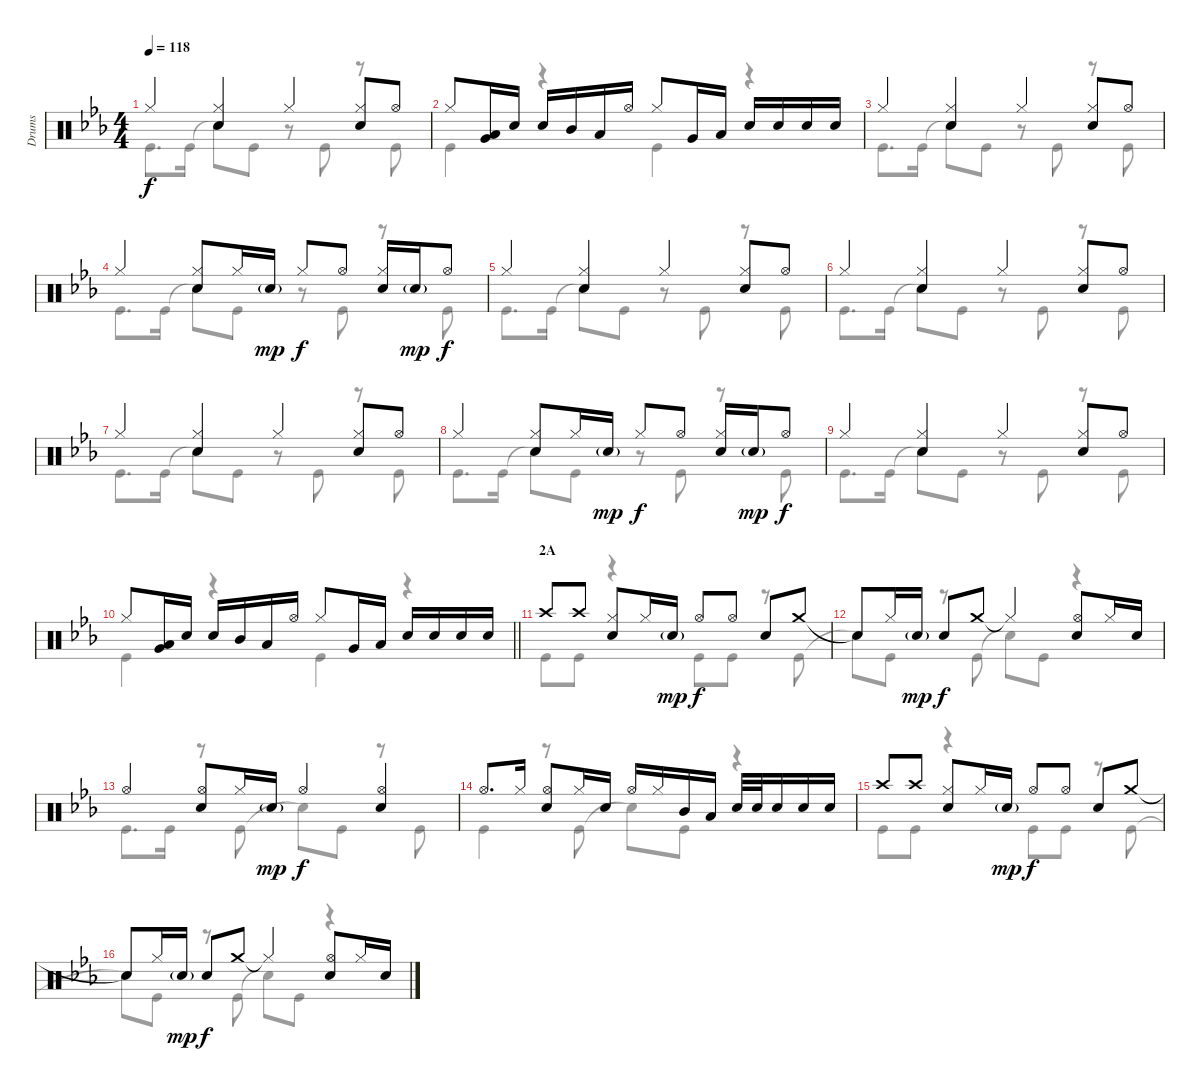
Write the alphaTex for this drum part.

\track ("Drums" "Drums") {instrument percussion}
\staff {score}
\articulation defaults
\voice
\ts (4 4)
\tempo 118
\clef neutral
\ks eb "Hi-Hat (closed)".4{dy f}
("Hi-Hat (closed)" "Snare (hit) 2").4 "Hi-Hat (closed)".4 ("Hi-Hat (closed)" "Snare (hit) 2").8 "Hi-Hat (open)".8 |
"Hi-Hat (closed)".8 ("Low Tom (hit)" "Very Low Tom (hit)").16 "Snare (hit) 2".16 "Snare (hit) 2".16 "Mid Tom (hit)".16 "Low Tom (hit)".16 "Hi-Hat (open)".16 "Hi-Hat (closed)".8 "Very Low Tom (hit)".16 "Low Tom (hit)".16 "Snare (hit) 2".16 "Snare (hit) 2".16 "Snare (hit) 2".16 "Snare (hit) 2".16 |
"Hi-Hat (closed)".4 ("Hi-Hat (closed)" "Snare (hit) 2").4 "Hi-Hat (closed)".4 ("Hi-Hat (closed)" "Snare (hit) 2").8 "Hi-Hat (open)".8 |
"Hi-Hat (closed)".4 ("Hi-Hat (closed)" "Snare (hit) 2").8 "Hi-Hat (closed)".16 "Snare (hit) 2"{g}.16{dy mp} "Hi-Hat (closed)".8{dy f} "Hi-Hat (open)".8 ("Hi-Hat (closed)" "Snare (hit) 2").16 "Snare (hit) 2"{g}.16{dy mp} "Hi-Hat (open)".8{dy f} |
"Hi-Hat (closed)".4 ("Hi-Hat (closed)" "Snare (hit) 2").4 "Hi-Hat (closed)".4 ("Hi-Hat (closed)" "Snare (hit) 2").8 "Hi-Hat (open)".8 |
"Hi-Hat (closed)".4 ("Hi-Hat (closed)" "Snare (hit) 2").4 "Hi-Hat (closed)".4 ("Hi-Hat (closed)" "Snare (hit) 2").8 "Hi-Hat (open)".8 |
"Hi-Hat (closed)".4 ("Hi-Hat (closed)" "Snare (hit) 2").4 "Hi-Hat (closed)".4 ("Hi-Hat (closed)" "Snare (hit) 2").8 "Hi-Hat (open)".8 |
"Hi-Hat (closed)".4 ("Hi-Hat (closed)" "Snare (hit) 2").8 "Hi-Hat (closed)".16 "Snare (hit) 2"{g}.16{dy mp} "Hi-Hat (closed)".8{dy f} "Hi-Hat (open)".8 ("Hi-Hat (closed)" "Snare (hit) 2").16 "Snare (hit) 2"{g}.16{dy mp} "Hi-Hat (open)".8{dy f} |
"Hi-Hat (closed)".4 ("Hi-Hat (closed)" "Snare (hit) 2").4 "Hi-Hat (closed)".4 ("Hi-Hat (closed)" "Snare (hit) 2").8 "Hi-Hat (open)".8 |
\barLineRight lightlight "Hi-Hat (closed)".8
("Low Tom (hit)" "Very Low Tom (hit)").16 "Snare (hit) 2".16 "Snare (hit) 2".16 "Mid Tom (hit)".16 "Low Tom (hit)".16 "Hi-Hat (open)".16 "Hi-Hat (closed)".8 "Very Low Tom (hit)".16 "Low Tom (hit)".16 "Snare (hit) 2".16 "Snare (hit) 2".16 "Snare (hit) 2".16 "Snare (hit) 2".16 |
\section ("" "2A")
"Crash high (hit)".8 "Crash high (hit)".8 ("Hi-Hat (closed)" "Snare (hit) 2").8 "Hi-Hat (closed)".16 "Snare (hit) 2"{g}.16{dy mp} "Hi-Hat (open)".8{dy f} "Hi-Hat (open)".8 "Snare (hit) 2".8 "Crash medium (hit)".8 |
"Snare (hit)"{t}.8 "Hi-Hat (closed)".16 "Snare (hit) 2"{g}.16{dy mp} "Snare (hit) 2".8{dy f} "Crash medium (hit)".8 "Hi-Hat (closed)"{t}.4 ("Hi-Hat (open)" "Snare (hit) 2").8 "Hi-Hat (closed)".16 "Snare (hit) 2".16 |
"Hi-Hat (open)".4 ("Hi-Hat (open)" "Snare (hit) 2").8 "Hi-Hat (closed)".16 "Snare (hit) 2"{g}.16{dy mp} "Hi-Hat (open)".4{dy f} ("Hi-Hat (open)" "Snare (hit) 2").4 |
"Hi-Hat (open)".8{d} "Hi-Hat (closed)".16 ("Hi-Hat (open)" "Snare (hit) 2").8 "Hi-Hat (closed)".16 "Snare (hit) 2".16 "Hi-Hat (open)".16 "Hi-Hat (closed)".16 "Mid Tom (hit)".16 "Low Tom (hit)".16 "Snare (hit) 2".32 "Snare (hit) 2".32 "Snare (hit) 2".16 "Snare (hit) 2".16 "Snare (hit) 2".16 |
"Crash high (hit)".8 "Crash high (hit)".8 ("Hi-Hat (closed)" "Snare (hit) 2").8 "Hi-Hat (closed)".16 "Snare (hit) 2"{g}.16{dy mp} "Hi-Hat (open)".8{dy f} "Hi-Hat (open)".8 "Snare (hit) 2".8 "Crash medium (hit)".8 |
"Snare (hit)"{t}.8 "Hi-Hat (closed)".16 "Snare (hit) 2"{g}.16{dy mp} "Snare (hit) 2".8{dy f} "Crash medium (hit)".8 "Hi-Hat (closed)"{t}.4 ("Hi-Hat (open)" "Snare (hit) 2").8 "Hi-Hat (closed)".16 "Snare (hit) 2".16
\voice
\clef neutral
\ottava regular
\simile none
\ks eb "Kick (hit)".8{d dy f} "Kick (hit)".16 "Snare (hit)"{t}.8 "Kick (hit)".8
r.8 "Kick (hit)".8 r.8 "Kick (hit)".8 |
"Kick (hit)".4 r.4 "Kick (hit)".4 r.4 |
"Kick (hit)".8{d} "Kick (hit)".16 "Snare (hit)"{t}.8 "Kick (hit)".8 r.8 "Kick (hit)".8 r.8 "Kick (hit)".8 |
"Kick (hit)".8{d} "Kick (hit)".16 "Snare (hit)"{t}.8 "Kick (hit)".8 r.8 "Kick (hit)".8 r.8 "Kick (hit)".8 |
"Kick (hit)".8{d} "Kick (hit)".16 "Snare (hit)"{t}.8 "Kick (hit)".8 r.8 "Kick (hit)".8 r.8 "Kick (hit)".8 |
"Kick (hit)".8{d} "Kick (hit)".16 "Snare (hit)"{t}.8 "Kick (hit)".8 r.8 "Kick (hit)".8 r.8 "Kick (hit)".8 |
"Kick (hit)".8{d} "Kick (hit)".16 "Snare (hit)"{t}.8 "Kick (hit)".8 r.8 "Kick (hit)".8 r.8 "Kick (hit)".8 |
"Kick (hit)".8{d} "Kick (hit)".16 "Snare (hit)"{t}.8 "Kick (hit)".8 r.8 "Kick (hit)".8 r.8 "Kick (hit)".8 |
"Kick (hit)".8{d} "Kick (hit)".16 "Snare (hit)"{t}.8 "Kick (hit)".8 r.8 "Kick (hit)".8 r.8 "Kick (hit)".8 |
\barLineRight lightlight "Kick (hit)".4
r.4 "Kick (hit)".4 r.4 |
"Kick (hit)".8 "Kick (hit)".8 r.4 "Kick (hit)".8 "Kick (hit)".8 r.8 "Kick (hit)".8 |
"Snare (hit)"{t}.8 "Kick (hit)".8 r.8 "Kick (hit)".8 "Snare (hit)"{t}.8 "Kick (hit)".8 r.4 |
"Kick (hit)".8{d} "Kick (hit)".16 r.8 "Kick (hit)".8 "Snare (hit)"{t}.8 "Kick (hit)".8 r.8 "Kick (hit)".8 |
"Kick (hit)".4 r.8 "Kick (hit)".8 "Snare (hit)"{t}.8 "Kick (hit)".8 r.4 |
"Kick (hit)".8 "Kick (hit)".8 r.4 "Kick (hit)".8 "Kick (hit)".8 r.8 "Kick (hit)".8 |
"Snare (hit)"{t}.8 "Kick (hit)".8 r.8 "Kick (hit)".8 "Snare (hit)"{t}.8 "Kick (hit)".8 r.4
